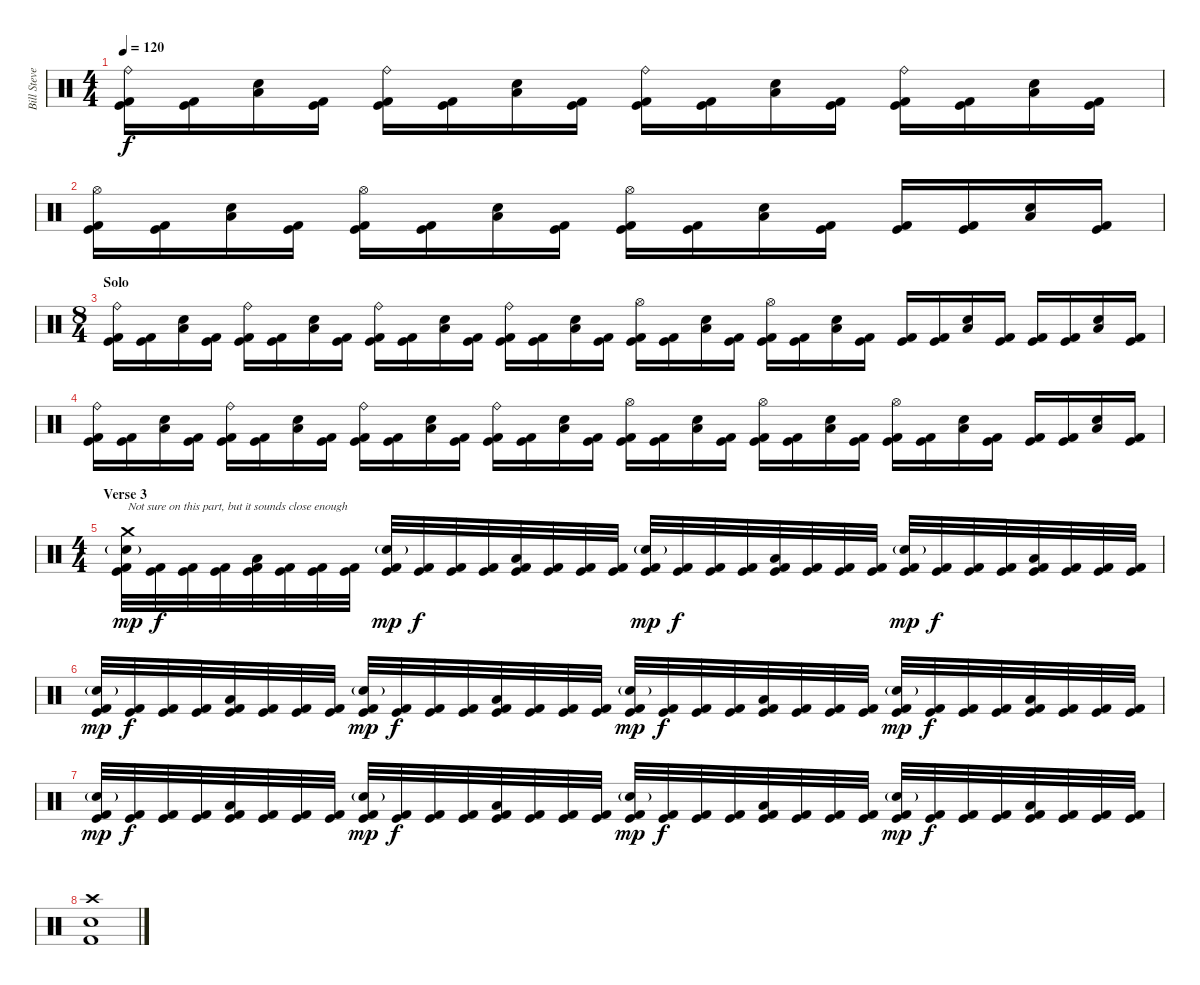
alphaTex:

\track ("Bill Stevenson" "Bill Steve") {instrument percussion}
\staff {score}
\articulation defaults
\ts (4 4)
\tempo 120
\clef neutral
\ks c
("Ride (bell)" "Kick (hit) 2" "Kick (hit)").16{dy f} ("Kick (hit) 2" "Kick (hit)").16 ("Low Tom (hit)" "Electric Snare (hit)").16 ("Kick (hit) 2" "Kick (hit)").16 ("Ride (bell)" "Kick (hit) 2" "Kick (hit)").16 ("Kick (hit) 2" "Kick (hit)").16 ("Low Tom (hit)" "Electric Snare (hit)").16 ("Kick (hit) 2" "Kick (hit)").16 ("Ride (bell)" "Kick (hit) 2" "Kick (hit)").16 ("Kick (hit) 2" "Kick (hit)").16 ("Low Tom (hit)" "Electric Snare (hit)").16 ("Kick (hit) 2" "Kick (hit)").16 ("Ride (bell)" "Kick (hit) 2" "Kick (hit)").16 ("Kick (hit) 2" "Kick (hit)").16 ("Low Tom (hit)" "Electric Snare (hit)").16 ("Kick (hit) 2" "Kick (hit)").16 |
("Hi-Hat (open)" "Kick (hit) 2" "Kick (hit)").16 ("Kick (hit) 2" "Kick (hit)").16 ("Low Tom (hit)" "Electric Snare (hit)").16 ("Kick (hit) 2" "Kick (hit)").16 ("Hi-Hat (open)" "Kick (hit) 2" "Kick (hit)").16 ("Kick (hit) 2" "Kick (hit)").16 ("Low Tom (hit)" "Electric Snare (hit)").16 ("Kick (hit) 2" "Kick (hit)").16 ("Hi-Hat (open)" "Kick (hit) 2" "Kick (hit)").16 ("Kick (hit) 2" "Kick (hit)").16 ("Low Tom (hit)" "Electric Snare (hit)").16 ("Kick (hit) 2" "Kick (hit)").16 ("Kick (hit) 2" "Kick (hit)").16 ("Kick (hit) 2" "Kick (hit)").16 ("Low Tom (hit)" "Electric Snare (hit)").16 ("Kick (hit) 2" "Kick (hit)").16 |
\ts (8 4)
\section ("" "Solo")
("Ride (bell)" "Kick (hit) 2" "Kick (hit)").16 ("Kick (hit) 2" "Kick (hit)").16 ("Low Tom (hit)" "Electric Snare (hit)").16 ("Kick (hit) 2" "Kick (hit)").16 ("Ride (bell)" "Kick (hit) 2" "Kick (hit)").16 ("Kick (hit) 2" "Kick (hit)").16 ("Low Tom (hit)" "Electric Snare (hit)").16 ("Kick (hit) 2" "Kick (hit)").16 ("Ride (bell)" "Kick (hit) 2" "Kick (hit)").16 ("Kick (hit) 2" "Kick (hit)").16 ("Low Tom (hit)" "Electric Snare (hit)").16 ("Kick (hit) 2" "Kick (hit)").16 ("Ride (bell)" "Kick (hit) 2" "Kick (hit)").16 ("Kick (hit) 2" "Kick (hit)").16 ("Low Tom (hit)" "Electric Snare (hit)").16 ("Kick (hit) 2" "Kick (hit)").16 ("Hi-Hat (open)" "Kick (hit) 2" "Kick (hit)").16 ("Kick (hit) 2" "Kick (hit)").16 ("Low Tom (hit)" "Electric Snare (hit)").16 ("Kick (hit) 2" "Kick (hit)").16 ("Hi-Hat (open)" "Kick (hit) 2" "Kick (hit)").16 ("Kick (hit) 2" "Kick (hit)").16 ("Low Tom (hit)" "Electric Snare (hit)").16 ("Kick (hit) 2" "Kick (hit)").16 ("Kick (hit) 2" "Kick (hit)").16 ("Kick (hit) 2" "Kick (hit)").16 ("Low Tom (hit)" "Electric Snare (hit)").16 ("Kick (hit) 2" "Kick (hit)").16 ("Kick (hit) 2" "Kick (hit)").16 ("Kick (hit) 2" "Kick (hit)").16 ("Low Tom (hit)" "Electric Snare (hit)").16 ("Kick (hit) 2" "Kick (hit)").16 |
("Ride (bell)" "Kick (hit) 2" "Kick (hit)").16 ("Kick (hit) 2" "Kick (hit)").16 ("Low Tom (hit)" "Electric Snare (hit)").16 ("Kick (hit) 2" "Kick (hit)").16 ("Ride (bell)" "Kick (hit) 2" "Kick (hit)").16 ("Kick (hit) 2" "Kick (hit)").16 ("Low Tom (hit)" "Electric Snare (hit)").16 ("Kick (hit) 2" "Kick (hit)").16 ("Ride (bell)" "Kick (hit) 2" "Kick (hit)").16 ("Kick (hit) 2" "Kick (hit)").16 ("Low Tom (hit)" "Electric Snare (hit)").16 ("Kick (hit) 2" "Kick (hit)").16 ("Ride (bell)" "Kick (hit) 2" "Kick (hit)").16 ("Kick (hit) 2" "Kick (hit)").16 ("Low Tom (hit)" "Electric Snare (hit)").16 ("Kick (hit) 2" "Kick (hit)").16 ("Hi-Hat (open)" "Kick (hit) 2" "Kick (hit)").16 ("Kick (hit) 2" "Kick (hit)").16 ("Low Tom (hit)" "Electric Snare (hit)").16 ("Kick (hit) 2" "Kick (hit)").16 ("Hi-Hat (open)" "Kick (hit) 2" "Kick (hit)").16 ("Kick (hit) 2" "Kick (hit)").16 ("Low Tom (hit)" "Electric Snare (hit)").16 ("Kick (hit) 2" "Kick (hit)").16 ("Hi-Hat (open)" "Kick (hit) 2" "Kick (hit)").16 ("Kick (hit) 2" "Kick (hit)").16 ("Low Tom (hit)" "Electric Snare (hit)").16 ("Kick (hit) 2" "Kick (hit)").16 ("Kick (hit) 2" "Kick (hit)").16 ("Kick (hit) 2" "Kick (hit)").16 ("Low Tom (hit)" "Electric Snare (hit)").16 ("Kick (hit) 2" "Kick (hit)").16 |
\ts (4 4)
\section ("" "Verse 3")
("Crash medium (hit)" "Electric Snare (hit)"{g} "Kick (hit) 2" "Kick (hit)").32{txt "Not sure on this part, but it sounds close enough" dy mp} ("Kick (hit) 2" "Kick (hit)").32{dy f} ("Kick (hit) 2" "Kick (hit)").32 ("Kick (hit) 2" "Kick (hit)").32 ("Low Floor Tom (hit)" "Kick (hit) 2" "Kick (hit)").32 ("Kick (hit) 2" "Kick (hit)").32 ("Kick (hit) 2" "Kick (hit)").32 ("Kick (hit) 2" "Kick (hit)").32 ("Electric Snare (hit)"{g} "Kick (hit) 2" "Kick (hit)").32{dy mp} ("Kick (hit) 2" "Kick (hit)").32{dy f} ("Kick (hit) 2" "Kick (hit)").32 ("Kick (hit) 2" "Kick (hit)").32 ("Low Floor Tom (hit)" "Kick (hit) 2" "Kick (hit)").32 ("Kick (hit) 2" "Kick (hit)").32 ("Kick (hit) 2" "Kick (hit)").32 ("Kick (hit) 2" "Kick (hit)").32 ("Electric Snare (hit)"{g} "Kick (hit) 2" "Kick (hit)").32{dy mp} ("Kick (hit) 2" "Kick (hit)").32{dy f} ("Kick (hit) 2" "Kick (hit)").32 ("Kick (hit) 2" "Kick (hit)").32 ("Low Floor Tom (hit)" "Kick (hit) 2" "Kick (hit)").32 ("Kick (hit) 2" "Kick (hit)").32 ("Kick (hit) 2" "Kick (hit)").32 ("Kick (hit) 2" "Kick (hit)").32 ("Electric Snare (hit)"{g} "Kick (hit) 2" "Kick (hit)").32{dy mp} ("Kick (hit) 2" "Kick (hit)").32{dy f} ("Kick (hit) 2" "Kick (hit)").32 ("Kick (hit) 2" "Kick (hit)").32 ("Low Floor Tom (hit)" "Kick (hit) 2" "Kick (hit)").32 ("Kick (hit) 2" "Kick (hit)").32 ("Kick (hit) 2" "Kick (hit)").32 ("Kick (hit) 2" "Kick (hit)").32 |
("Electric Snare (hit)"{g} "Kick (hit) 2" "Kick (hit)").32{dy mp} ("Kick (hit) 2" "Kick (hit)").32{dy f} ("Kick (hit) 2" "Kick (hit)").32 ("Kick (hit) 2" "Kick (hit)").32 ("Low Floor Tom (hit)" "Kick (hit) 2" "Kick (hit)").32 ("Kick (hit) 2" "Kick (hit)").32 ("Kick (hit) 2" "Kick (hit)").32 ("Kick (hit) 2" "Kick (hit)").32 ("Electric Snare (hit)"{g} "Kick (hit) 2" "Kick (hit)").32{dy mp} ("Kick (hit) 2" "Kick (hit)").32{dy f} ("Kick (hit) 2" "Kick (hit)").32 ("Kick (hit) 2" "Kick (hit)").32 ("Low Floor Tom (hit)" "Kick (hit) 2" "Kick (hit)").32 ("Kick (hit) 2" "Kick (hit)").32 ("Kick (hit) 2" "Kick (hit)").32 ("Kick (hit) 2" "Kick (hit)").32 ("Electric Snare (hit)"{g} "Kick (hit) 2" "Kick (hit)").32{dy mp} ("Kick (hit) 2" "Kick (hit)").32{dy f} ("Kick (hit) 2" "Kick (hit)").32 ("Kick (hit) 2" "Kick (hit)").32 ("Low Floor Tom (hit)" "Kick (hit) 2" "Kick (hit)").32 ("Kick (hit) 2" "Kick (hit)").32 ("Kick (hit) 2" "Kick (hit)").32 ("Kick (hit) 2" "Kick (hit)").32 ("Electric Snare (hit)"{g} "Kick (hit) 2" "Kick (hit)").32{dy mp} ("Kick (hit) 2" "Kick (hit)").32{dy f} ("Kick (hit) 2" "Kick (hit)").32 ("Kick (hit) 2" "Kick (hit)").32 ("Low Floor Tom (hit)" "Kick (hit) 2" "Kick (hit)").32 ("Kick (hit) 2" "Kick (hit)").32 ("Kick (hit) 2" "Kick (hit)").32 ("Kick (hit) 2" "Kick (hit)").32 |
("Electric Snare (hit)"{g} "Kick (hit) 2" "Kick (hit)").32{dy mp} ("Kick (hit) 2" "Kick (hit)").32{dy f} ("Kick (hit) 2" "Kick (hit)").32 ("Kick (hit) 2" "Kick (hit)").32 ("Low Floor Tom (hit)" "Kick (hit) 2" "Kick (hit)").32 ("Kick (hit) 2" "Kick (hit)").32 ("Kick (hit) 2" "Kick (hit)").32 ("Kick (hit) 2" "Kick (hit)").32 ("Electric Snare (hit)"{g} "Kick (hit) 2" "Kick (hit)").32{dy mp} ("Kick (hit) 2" "Kick (hit)").32{dy f} ("Kick (hit) 2" "Kick (hit)").32 ("Kick (hit) 2" "Kick (hit)").32 ("Low Floor Tom (hit)" "Kick (hit) 2" "Kick (hit)").32 ("Kick (hit) 2" "Kick (hit)").32 ("Kick (hit) 2" "Kick (hit)").32 ("Kick (hit) 2" "Kick (hit)").32 ("Electric Snare (hit)"{g} "Kick (hit) 2" "Kick (hit)").32{dy mp} ("Kick (hit) 2" "Kick (hit)").32{dy f} ("Kick (hit) 2" "Kick (hit)").32 ("Kick (hit) 2" "Kick (hit)").32 ("Low Floor Tom (hit)" "Kick (hit) 2" "Kick (hit)").32 ("Kick (hit) 2" "Kick (hit)").32 ("Kick (hit) 2" "Kick (hit)").32 ("Kick (hit) 2" "Kick (hit)").32 ("Electric Snare (hit)"{g} "Kick (hit) 2" "Kick (hit)").32{dy mp} ("Kick (hit) 2" "Kick (hit)").32{dy f} ("Kick (hit) 2" "Kick (hit)").32 ("Kick (hit) 2" "Kick (hit)").32 ("Low Floor Tom (hit)" "Kick (hit) 2" "Kick (hit)").32 ("Kick (hit) 2" "Kick (hit)").32 ("Kick (hit) 2" "Kick (hit)").32 ("Kick (hit) 2" "Kick (hit)").32 |
("Crash high (hit)" "Kick (hit) 2" "Snare (hit)").1
